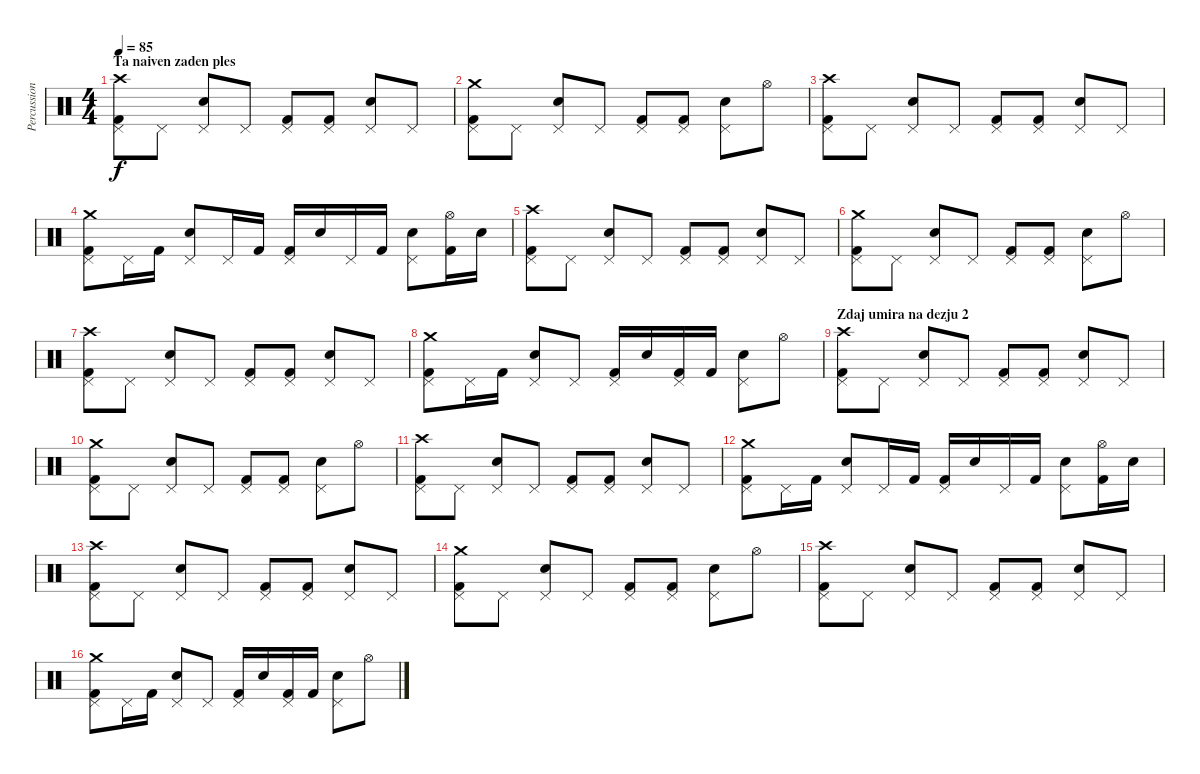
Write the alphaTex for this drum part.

\track ("Percussion" "Percussion") {instrument percussion}
\staff {score}
\articulation defaults
\ts (4 4)
\section ("" "Ta naiven zaden ples")
\tempo 85
\clef neutral
\ks c
("Crash high (hit)" "Pedal Hi-Hat (hit)" "Kick (hit) 2").8{dy f} "Pedal Hi-Hat (hit)".8 ("Pedal Hi-Hat (hit)" "Snare (hit) 2").8 "Pedal Hi-Hat (hit)".8 ("Pedal Hi-Hat (hit)" "Kick (hit) 2").8 ("Pedal Hi-Hat (hit)" "Kick (hit) 2").8 ("Pedal Hi-Hat (hit)" "Snare (hit) 2").8 "Pedal Hi-Hat (hit)".8 |
("Crash medium (hit)" "Pedal Hi-Hat (hit)" "Kick (hit) 2").8 "Pedal Hi-Hat (hit)".8 ("Pedal Hi-Hat (hit)" "Snare (hit) 2").8 "Pedal Hi-Hat (hit)".8 ("Pedal Hi-Hat (hit)" "Kick (hit) 2").8 ("Pedal Hi-Hat (hit)" "Kick (hit) 2").8 ("Pedal Hi-Hat (hit)" "Snare (hit) 2").8 "Hi-Hat (open)".8 |
("Crash high (hit)" "Pedal Hi-Hat (hit)" "Kick (hit) 2").8 "Pedal Hi-Hat (hit)".8 ("Pedal Hi-Hat (hit)" "Snare (hit) 2").8 "Pedal Hi-Hat (hit)".8 ("Pedal Hi-Hat (hit)" "Kick (hit) 2").8 ("Pedal Hi-Hat (hit)" "Kick (hit) 2").8 ("Pedal Hi-Hat (hit)" "Snare (hit) 2").8 "Pedal Hi-Hat (hit)".8 |
("Crash medium (hit)" "Pedal Hi-Hat (hit)" "Kick (hit) 2").8 "Pedal Hi-Hat (hit)".16 "Kick (hit) 2".16 ("Pedal Hi-Hat (hit)" "Snare (hit) 2").8 "Pedal Hi-Hat (hit)".16 "Kick (hit) 2".16 ("Pedal Hi-Hat (hit)" "Kick (hit) 2").16 "Snare (hit) 2".16 "Pedal Hi-Hat (hit)".16 "Kick (hit) 2".16 ("Pedal Hi-Hat (hit)" "Snare (hit) 2").8 ("Hi-Hat (open)" "Kick (hit) 2").16 "Snare (hit) 2".16 |
("Crash high (hit)" "Pedal Hi-Hat (hit)" "Kick (hit) 2").8 "Pedal Hi-Hat (hit)".8 ("Pedal Hi-Hat (hit)" "Snare (hit) 2").8 "Pedal Hi-Hat (hit)".8 ("Pedal Hi-Hat (hit)" "Kick (hit) 2").8 ("Pedal Hi-Hat (hit)" "Kick (hit) 2").8 ("Pedal Hi-Hat (hit)" "Snare (hit) 2").8 "Pedal Hi-Hat (hit)".8 |
("Crash medium (hit)" "Pedal Hi-Hat (hit)" "Kick (hit) 2").8 "Pedal Hi-Hat (hit)".8 ("Pedal Hi-Hat (hit)" "Snare (hit) 2").8 "Pedal Hi-Hat (hit)".8 ("Pedal Hi-Hat (hit)" "Kick (hit) 2").8 ("Pedal Hi-Hat (hit)" "Kick (hit) 2").8 ("Pedal Hi-Hat (hit)" "Snare (hit) 2").8 "Hi-Hat (open)".8 |
("Crash high (hit)" "Pedal Hi-Hat (hit)" "Kick (hit) 2").8 "Pedal Hi-Hat (hit)".8 ("Pedal Hi-Hat (hit)" "Snare (hit) 2").8 "Pedal Hi-Hat (hit)".8 ("Pedal Hi-Hat (hit)" "Kick (hit) 2").8 ("Pedal Hi-Hat (hit)" "Kick (hit) 2").8 ("Pedal Hi-Hat (hit)" "Snare (hit) 2").8 "Pedal Hi-Hat (hit)".8 |
("Crash medium (hit)" "Pedal Hi-Hat (hit)" "Kick (hit) 2").8 "Pedal Hi-Hat (hit)".16 "Kick (hit) 2".16 ("Pedal Hi-Hat (hit)" "Snare (hit) 2").8 "Pedal Hi-Hat (hit)".8 ("Pedal Hi-Hat (hit)" "Kick (hit) 2").16 "Snare (hit) 2".16 ("Pedal Hi-Hat (hit)" "Kick (hit) 2").16 "Kick (hit) 2".16 ("Pedal Hi-Hat (hit)" "Snare (hit) 2").8 "Hi-Hat (open)".8 |
\section ("" "Zdaj umira na dezju 2")
("Crash high (hit)" "Pedal Hi-Hat (hit)" "Kick (hit) 2").8 "Pedal Hi-Hat (hit)".8 ("Pedal Hi-Hat (hit)" "Snare (hit) 2").8 "Pedal Hi-Hat (hit)".8 ("Pedal Hi-Hat (hit)" "Kick (hit) 2").8 ("Pedal Hi-Hat (hit)" "Kick (hit) 2").8 ("Pedal Hi-Hat (hit)" "Snare (hit) 2").8 "Pedal Hi-Hat (hit)".8 |
("Crash medium (hit)" "Pedal Hi-Hat (hit)" "Kick (hit) 2").8 "Pedal Hi-Hat (hit)".8 ("Pedal Hi-Hat (hit)" "Snare (hit) 2").8 "Pedal Hi-Hat (hit)".8 ("Pedal Hi-Hat (hit)" "Kick (hit) 2").8 ("Pedal Hi-Hat (hit)" "Kick (hit) 2").8 ("Pedal Hi-Hat (hit)" "Snare (hit) 2").8 "Hi-Hat (open)".8 |
("Crash high (hit)" "Pedal Hi-Hat (hit)" "Kick (hit) 2").8 "Pedal Hi-Hat (hit)".8 ("Pedal Hi-Hat (hit)" "Snare (hit) 2").8 "Pedal Hi-Hat (hit)".8 ("Pedal Hi-Hat (hit)" "Kick (hit) 2").8 ("Pedal Hi-Hat (hit)" "Kick (hit) 2").8 ("Pedal Hi-Hat (hit)" "Snare (hit) 2").8 "Pedal Hi-Hat (hit)".8 |
("Crash medium (hit)" "Pedal Hi-Hat (hit)" "Kick (hit) 2").8 "Pedal Hi-Hat (hit)".16 "Kick (hit) 2".16 ("Pedal Hi-Hat (hit)" "Snare (hit) 2").8 "Pedal Hi-Hat (hit)".16 "Kick (hit) 2".16 ("Pedal Hi-Hat (hit)" "Kick (hit) 2").16 "Snare (hit) 2".16 "Pedal Hi-Hat (hit)".16 "Kick (hit) 2".16 ("Pedal Hi-Hat (hit)" "Snare (hit) 2").8 ("Hi-Hat (open)" "Kick (hit) 2").16 "Snare (hit) 2".16 |
("Crash high (hit)" "Pedal Hi-Hat (hit)" "Kick (hit) 2").8 "Pedal Hi-Hat (hit)".8 ("Pedal Hi-Hat (hit)" "Snare (hit) 2").8 "Pedal Hi-Hat (hit)".8 ("Pedal Hi-Hat (hit)" "Kick (hit) 2").8 ("Pedal Hi-Hat (hit)" "Kick (hit) 2").8 ("Pedal Hi-Hat (hit)" "Snare (hit) 2").8 "Pedal Hi-Hat (hit)".8 |
("Crash medium (hit)" "Pedal Hi-Hat (hit)" "Kick (hit) 2").8 "Pedal Hi-Hat (hit)".8 ("Pedal Hi-Hat (hit)" "Snare (hit) 2").8 "Pedal Hi-Hat (hit)".8 ("Pedal Hi-Hat (hit)" "Kick (hit) 2").8 ("Pedal Hi-Hat (hit)" "Kick (hit) 2").8 ("Pedal Hi-Hat (hit)" "Snare (hit) 2").8 "Hi-Hat (open)".8 |
("Crash high (hit)" "Pedal Hi-Hat (hit)" "Kick (hit) 2").8 "Pedal Hi-Hat (hit)".8 ("Pedal Hi-Hat (hit)" "Snare (hit) 2").8 "Pedal Hi-Hat (hit)".8 ("Pedal Hi-Hat (hit)" "Kick (hit) 2").8 ("Pedal Hi-Hat (hit)" "Kick (hit) 2").8 ("Pedal Hi-Hat (hit)" "Snare (hit) 2").8 "Pedal Hi-Hat (hit)".8 |
("Crash medium (hit)" "Pedal Hi-Hat (hit)" "Kick (hit) 2").8 "Pedal Hi-Hat (hit)".16 "Kick (hit) 2".16 ("Pedal Hi-Hat (hit)" "Snare (hit) 2").8 "Pedal Hi-Hat (hit)".8 ("Pedal Hi-Hat (hit)" "Kick (hit) 2").16 "Snare (hit) 2".16 ("Pedal Hi-Hat (hit)" "Kick (hit) 2").16 "Kick (hit) 2".16 ("Pedal Hi-Hat (hit)" "Snare (hit) 2").8 "Hi-Hat (open)".8
